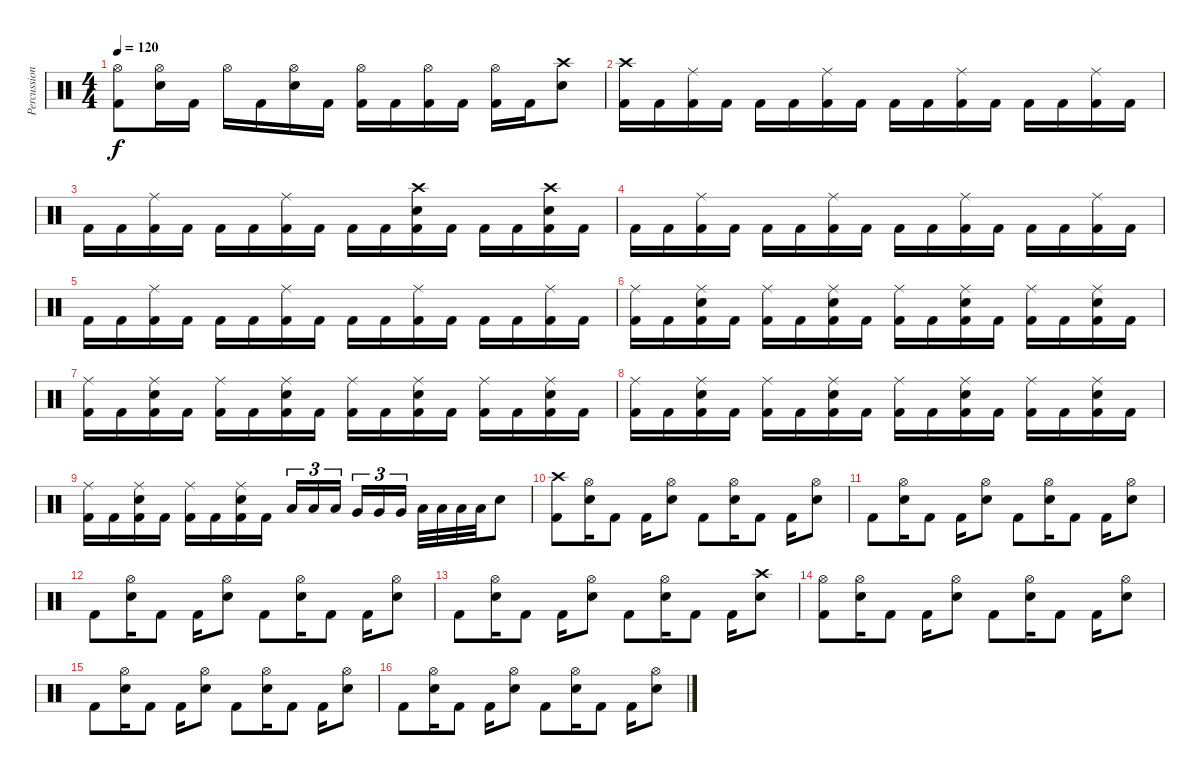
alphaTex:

\track ("Percussion" "Percussion") {instrument percussion}
\staff {score}
\articulation defaults
\ts (4 4)
\tempo 120
\clef neutral
\ks c
("Hi-Hat (open)" "Kick (hit) 2").8{dy f} ("Hi-Hat (open)" "Snare (hit) 2").16 "Kick (hit) 2".16 "Hi-Hat (open)".16 "Kick (hit) 2".16 ("Hi-Hat (open)" "Snare (hit) 2").16 "Kick (hit) 2".16 ("Hi-Hat (open)" "Kick (hit) 2").16 "Kick (hit) 2".16 ("Hi-Hat (open)" "Kick (hit) 2").16 "Kick (hit) 2".16 ("Hi-Hat (open)" "Kick (hit) 2").16 "Kick (hit) 2".16 ("Crash high (hit)" "Snare (hit) 2").8 |
("Crash high (hit)" "Kick (hit) 2").16 "Kick (hit) 2".16 ("Ride (middle)" "Kick (hit) 2").16 "Kick (hit) 2".16 "Kick (hit) 2".16 "Kick (hit) 2".16 ("Ride (middle)" "Kick (hit) 2").16 "Kick (hit) 2".16 "Kick (hit) 2".16 "Kick (hit) 2".16 ("Ride (middle)" "Kick (hit) 2").16 "Kick (hit) 2".16 "Kick (hit) 2".16 "Kick (hit) 2".16 ("Ride (middle)" "Kick (hit) 2").16 "Kick (hit) 2".16 |
"Kick (hit) 2".16 "Kick (hit) 2".16 ("Ride (middle)" "Kick (hit) 2").16 "Kick (hit) 2".16 "Kick (hit) 2".16 "Kick (hit) 2".16 ("Ride (middle)" "Kick (hit) 2").16 "Kick (hit) 2".16 "Kick (hit) 2".16 "Kick (hit) 2".16 ("Crash high (hit)" "Snare (hit) 2" "Kick (hit) 2").16 "Kick (hit) 2".16 "Kick (hit) 2".16 "Kick (hit) 2".16 ("Crash high (hit)" "Snare (hit) 2" "Kick (hit) 2").16 "Kick (hit) 2".16 |
"Kick (hit) 2".16 "Kick (hit) 2".16 ("Ride (middle)" "Kick (hit) 2").16 "Kick (hit) 2".16 "Kick (hit) 2".16 "Kick (hit) 2".16 ("Ride (middle)" "Kick (hit) 2").16 "Kick (hit) 2".16 "Kick (hit) 2".16 "Kick (hit) 2".16 ("Ride (middle)" "Kick (hit) 2").16 "Kick (hit) 2".16 "Kick (hit) 2".16 "Kick (hit) 2".16 ("Ride (middle)" "Kick (hit) 2").16 "Kick (hit) 2".16 |
"Kick (hit) 2".16 "Kick (hit) 2".16 ("Ride (middle)" "Kick (hit) 2").16 "Kick (hit) 2".16 "Kick (hit) 2".16 "Kick (hit) 2".16 ("Ride (middle)" "Kick (hit) 2").16 "Kick (hit) 2".16 "Kick (hit) 2".16 "Kick (hit) 2".16 ("Ride (middle)" "Kick (hit) 2").16 "Kick (hit) 2".16 "Kick (hit) 2".16 "Kick (hit) 2".16 ("Ride (middle)" "Kick (hit) 2").16 "Kick (hit) 2".16 |
("Ride (middle)" "Kick (hit) 2").16 "Kick (hit) 2".16 ("Ride (middle)" "Snare (hit) 2" "Kick (hit) 2").16 "Kick (hit) 2".16 ("Ride (middle)" "Kick (hit) 2").16 "Kick (hit) 2".16 ("Ride (middle)" "Snare (hit) 2" "Kick (hit) 2").16 "Kick (hit) 2".16 ("Ride (middle)" "Kick (hit) 2").16 "Kick (hit) 2".16 ("Ride (middle)" "Snare (hit) 2" "Kick (hit) 2").16 "Kick (hit) 2".16 ("Ride (middle)" "Kick (hit) 2").16 "Kick (hit) 2".16 ("Ride (middle)" "Snare (hit) 2" "Kick (hit) 2").16 "Kick (hit) 2".16 |
("Ride (middle)" "Kick (hit) 2").16 "Kick (hit) 2".16 ("Ride (middle)" "Snare (hit) 2" "Kick (hit) 2").16 "Kick (hit) 2".16 ("Ride (middle)" "Kick (hit) 2").16 "Kick (hit) 2".16 ("Ride (middle)" "Snare (hit) 2" "Kick (hit) 2").16 "Kick (hit) 2".16 ("Ride (middle)" "Kick (hit) 2").16 "Kick (hit) 2".16 ("Ride (middle)" "Snare (hit) 2" "Kick (hit) 2").16 "Kick (hit) 2".16 ("Ride (middle)" "Kick (hit) 2").16 "Kick (hit) 2".16 ("Ride (middle)" "Snare (hit) 2" "Kick (hit) 2").16 "Kick (hit) 2".16 |
("Ride (middle)" "Kick (hit) 2").16 "Kick (hit) 2".16 ("Ride (middle)" "Snare (hit) 2" "Kick (hit) 2").16 "Kick (hit) 2".16 ("Ride (middle)" "Kick (hit) 2").16 "Kick (hit) 2".16 ("Ride (middle)" "Snare (hit) 2" "Kick (hit) 2").16 "Kick (hit) 2".16 ("Ride (middle)" "Kick (hit) 2").16 "Kick (hit) 2".16 ("Ride (middle)" "Snare (hit) 2" "Kick (hit) 2").16 "Kick (hit) 2".16 ("Ride (middle)" "Kick (hit) 2").16 "Kick (hit) 2".16 ("Ride (middle)" "Snare (hit) 2" "Kick (hit) 2").16 "Kick (hit) 2".16 |
("Ride (middle)" "Kick (hit) 2").16 "Kick (hit) 2".16 ("Ride (middle)" "Snare (hit) 2" "Kick (hit) 2").16 "Kick (hit) 2".16 ("Ride (middle)" "Kick (hit) 2").16 "Kick (hit) 2".16 ("Ride (middle)" "Snare (hit) 2" "Kick (hit) 2").16 "Kick (hit) 2".16 "Low Tom (hit)".16{tu (3 2)} "Low Tom (hit)".16{tu (3 2)} "Low Tom (hit)".16{tu (3 2)} "Very Low Tom (hit)".16{tu (3 2)} "Very Low Tom (hit)".16{tu (3 2)} "Very Low Tom (hit)".16{tu (3 2)} "Low Floor Tom (hit)".32 "Low Floor Tom (hit)".32 "Low Floor Tom (hit)".32 "Low Floor Tom (hit)".32 "Snare (hit) 2".8 |
("Crash high (hit)" "Kick (hit) 2").8 ("Hi-Hat (open)" "Snare (hit) 2").16 "Kick (hit) 2".8 "Kick (hit) 2".16 ("Hi-Hat (open)" "Snare (hit) 2").8 "Kick (hit) 2".8 ("Hi-Hat (open)" "Snare (hit) 2").16 "Kick (hit) 2".8 "Kick (hit) 2".16 ("Hi-Hat (open)" "Snare (hit) 2").8 |
"Kick (hit) 2".8 ("Hi-Hat (open)" "Snare (hit) 2").16 "Kick (hit) 2".8 "Kick (hit) 2".16 ("Hi-Hat (open)" "Snare (hit) 2").8 "Kick (hit) 2".8 ("Hi-Hat (open)" "Snare (hit) 2").16 "Kick (hit) 2".8 "Kick (hit) 2".16 ("Hi-Hat (open)" "Snare (hit) 2").8 |
"Kick (hit) 2".8 ("Hi-Hat (open)" "Snare (hit) 2").16 "Kick (hit) 2".8 "Kick (hit) 2".16 ("Hi-Hat (open)" "Snare (hit) 2").8 "Kick (hit) 2".8 ("Hi-Hat (open)" "Snare (hit) 2").16 "Kick (hit) 2".8 "Kick (hit) 2".16 ("Hi-Hat (open)" "Snare (hit) 2").8 |
"Kick (hit) 2".8 ("Hi-Hat (open)" "Snare (hit) 2").16 "Kick (hit) 2".8 "Kick (hit) 2".16 ("Hi-Hat (open)" "Snare (hit) 2").8 "Kick (hit) 2".8 ("Hi-Hat (open)" "Snare (hit) 2").16 "Kick (hit) 2".8 "Kick (hit) 2".16 ("Crash high (hit)" "Snare (hit) 2").8 |
("Hi-Hat (open)" "Kick (hit) 2").8 ("Hi-Hat (open)" "Snare (hit) 2").16 "Kick (hit) 2".8 "Kick (hit) 2".16 ("Hi-Hat (open)" "Snare (hit) 2").8 "Kick (hit) 2".8 ("Hi-Hat (open)" "Snare (hit) 2").16 "Kick (hit) 2".8 "Kick (hit) 2".16 ("Hi-Hat (open)" "Snare (hit) 2").8 |
"Kick (hit) 2".8 ("Hi-Hat (open)" "Snare (hit) 2").16 "Kick (hit) 2".8 "Kick (hit) 2".16 ("Hi-Hat (open)" "Snare (hit) 2").8 "Kick (hit) 2".8 ("Hi-Hat (open)" "Snare (hit) 2").16 "Kick (hit) 2".8 "Kick (hit) 2".16 ("Hi-Hat (open)" "Snare (hit) 2").8 |
"Kick (hit) 2".8 ("Hi-Hat (open)" "Snare (hit) 2").16 "Kick (hit) 2".8 "Kick (hit) 2".16 ("Hi-Hat (open)" "Snare (hit) 2").8 "Kick (hit) 2".8 ("Hi-Hat (open)" "Snare (hit) 2").16 "Kick (hit) 2".8 "Kick (hit) 2".16 ("Hi-Hat (open)" "Snare (hit) 2").8
